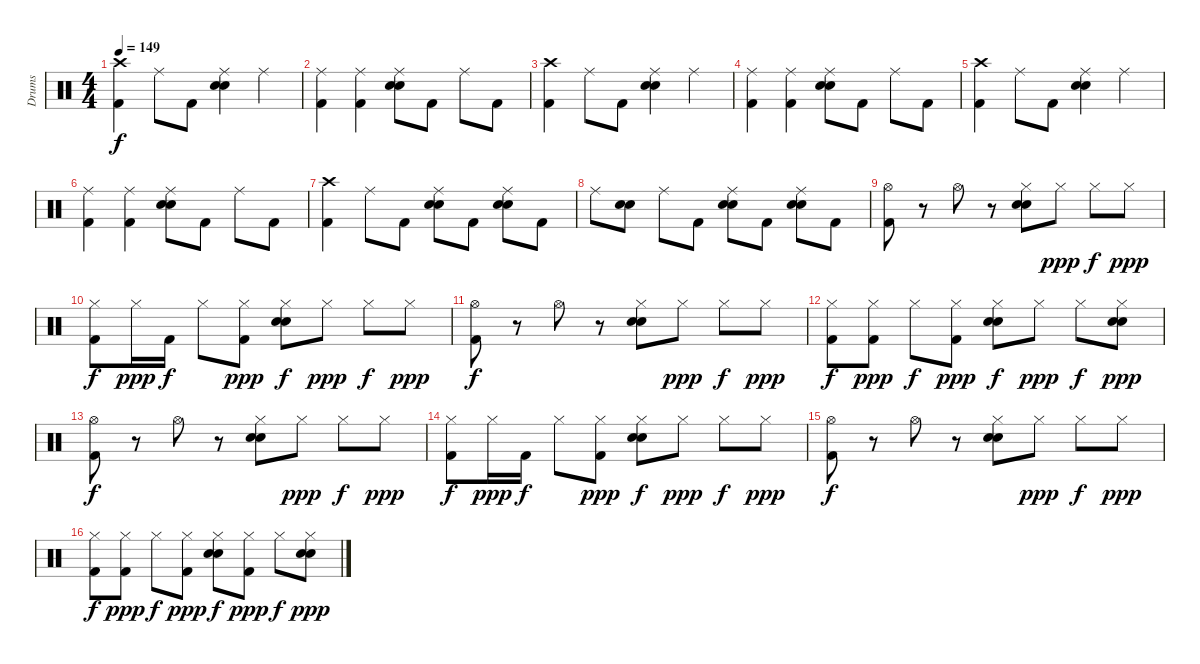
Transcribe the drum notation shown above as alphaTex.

\track ("Drums" "Drums") {instrument percussion}
\staff {score}
\articulation defaults
\ts (4 4)
\tempo 149
\clef neutral
\ks c
("Kick (hit) 2" "Crash high (hit)").4{dy f} "Ride (middle)".8 "Kick (hit) 2".8 ("Electric Snare (hit)" "Snare (hit) 2" "Ride (middle)").4 "Ride (middle)".4 |
("Kick (hit) 2" "Ride (middle)").4 ("Kick (hit) 2" "Ride (middle)").4 ("Electric Snare (hit)" "Snare (hit) 2" "Ride (middle)").8 "Kick (hit) 2".8 "Ride (middle)".8 "Kick (hit) 2".8 |
("Kick (hit) 2" "Crash high (hit)").4 "Ride (middle)".8 "Kick (hit) 2".8 ("Electric Snare (hit)" "Snare (hit) 2" "Ride (middle)").4 "Ride (middle)".4 |
("Kick (hit) 2" "Ride (middle)").4 ("Kick (hit) 2" "Ride (middle)").4 ("Electric Snare (hit)" "Snare (hit) 2" "Ride (middle)").8 "Kick (hit) 2".8 "Ride (middle)".8 "Kick (hit) 2".8 |
("Kick (hit) 2" "Crash high (hit)").4 "Ride (middle)".8 "Kick (hit) 2".8 ("Electric Snare (hit)" "Snare (hit) 2" "Ride (middle)").4 "Ride (middle)".4 |
("Kick (hit) 2" "Ride (middle)").4 ("Kick (hit) 2" "Ride (middle)").4 ("Electric Snare (hit)" "Snare (hit) 2" "Ride (middle)").8 "Kick (hit) 2".8 "Ride (middle)".8 "Kick (hit) 2".8 |
("Kick (hit) 2" "Crash high (hit)").4 "Ride (middle)".8 "Kick (hit) 2".8 ("Electric Snare (hit)" "Snare (hit) 2" "Ride (middle)").8 "Kick (hit) 2".8 ("Electric Snare (hit)" "Snare (hit) 2" "Ride (middle)").8 "Kick (hit) 2".8 |
"Ride (middle)".8 ("Electric Snare (hit)" "Snare (hit) 2").8 "Ride (middle)".8 "Kick (hit) 2".8 ("Electric Snare (hit)" "Snare (hit) 2" "Ride (middle)").8 "Kick (hit) 2".8 ("Electric Snare (hit)" "Snare (hit) 2" "Ride (middle)").8 "Kick (hit) 2".8 |
("Kick (hit) 2" "Hi-Hat (open)").8 r.8 "Hi-Hat (open)".8 r.8 ("Electric Snare (hit)" "Snare (hit) 2" "Hi-Hat (closed)").8 "Hi-Hat (closed)".8{dy ppp} "Hi-Hat (closed)".8{dy f} "Hi-Hat (closed)".8{dy ppp} |
("Kick (hit) 2" "Hi-Hat (closed)").8{dy f} "Hi-Hat (closed)".16{dy ppp} "Kick (hit) 2".16{dy f} "Hi-Hat (closed)".8 ("Kick (hit) 2" "Hi-Hat (closed)").8{dy ppp} ("Electric Snare (hit)" "Snare (hit) 2" "Hi-Hat (closed)").8{dy f} "Hi-Hat (closed)".8{dy ppp} "Hi-Hat (closed)".8{dy f} "Hi-Hat (closed)".8{dy ppp} |
("Kick (hit) 2" "Hi-Hat (open)").8{dy f} r.8 "Hi-Hat (open)".8 r.8 ("Electric Snare (hit)" "Snare (hit) 2" "Hi-Hat (closed)").8 "Hi-Hat (closed)".8{dy ppp} "Hi-Hat (closed)".8{dy f} "Hi-Hat (closed)".8{dy ppp} |
("Kick (hit) 2" "Hi-Hat (closed)").8{dy f} ("Kick (hit) 2" "Hi-Hat (closed)").8{dy ppp} "Hi-Hat (closed)".8{dy f} ("Kick (hit) 2" "Hi-Hat (closed)").8{dy ppp} ("Electric Snare (hit)" "Snare (hit) 2" "Hi-Hat (closed)").8{dy f} "Hi-Hat (closed)".8{dy ppp} "Hi-Hat (closed)".8{dy f} ("Electric Snare (hit)" "Snare (hit) 2" "Hi-Hat (closed)").8{dy ppp} |
("Kick (hit) 2" "Hi-Hat (open)").8{dy f} r.8 "Hi-Hat (open)".8 r.8 ("Electric Snare (hit)" "Snare (hit) 2" "Hi-Hat (closed)").8 "Hi-Hat (closed)".8{dy ppp} "Hi-Hat (closed)".8{dy f} "Hi-Hat (closed)".8{dy ppp} |
("Kick (hit) 2" "Hi-Hat (closed)").8{dy f} "Hi-Hat (closed)".16{dy ppp} "Kick (hit) 2".16{dy f} "Hi-Hat (closed)".8 ("Kick (hit) 2" "Hi-Hat (closed)").8{dy ppp} ("Electric Snare (hit)" "Snare (hit) 2" "Hi-Hat (closed)").8{dy f} "Hi-Hat (closed)".8{dy ppp} "Hi-Hat (closed)".8{dy f} "Hi-Hat (closed)".8{dy ppp} |
("Kick (hit) 2" "Hi-Hat (open)").8{dy f} r.8 "Hi-Hat (open)".8 r.8 ("Electric Snare (hit)" "Snare (hit) 2" "Hi-Hat (closed)").8 "Hi-Hat (closed)".8{dy ppp} "Hi-Hat (closed)".8{dy f} "Hi-Hat (closed)".8{dy ppp} |
("Kick (hit) 2" "Hi-Hat (closed)").8{dy f} ("Kick (hit) 2" "Hi-Hat (closed)").8{dy ppp} "Hi-Hat (closed)".8{dy f} ("Kick (hit) 2" "Hi-Hat (closed)").8{dy ppp} ("Electric Snare (hit)" "Snare (hit) 2" "Hi-Hat (closed)").8{dy f} ("Kick (hit) 2" "Hi-Hat (closed)").8{dy ppp} "Hi-Hat (closed)".8{dy f} ("Electric Snare (hit)" "Snare (hit) 2" "Hi-Hat (closed)").8{dy ppp}
